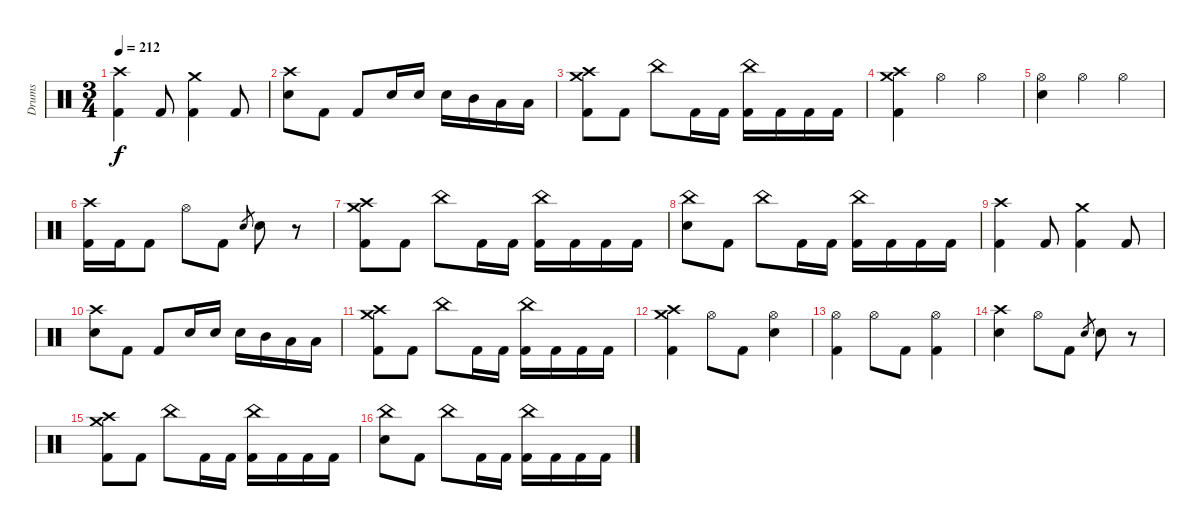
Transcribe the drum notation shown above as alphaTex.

\track ("Drums" "Drums") {instrument percussion}
\staff {score}
\articulation defaults
\ts (3 4)
\tempo 212
\clef neutral
\ks c
("Crash high (hit)" "Kick (hit) 2").4{dy f} "Kick (hit) 2".8 ("Crash medium (hit)" "Kick (hit) 2").4 "Kick (hit) 2".8 |
("Crash high (hit)" "Electric Snare (hit)").8 "Kick (hit) 2".8 "Kick (hit) 2".8 "Electric Snare (hit)".16 "Electric Snare (hit)".16 "Electric Snare (hit)".16 "Mid Tom (hit)".16 "Low Tom (hit)".16 "Low Tom (hit)".16 |
("Crash medium (hit)" "Crash high (hit)" "Kick (hit) 2").8 "Kick (hit) 2".8 "China (hit)".8 "Kick (hit) 2".16 "Kick (hit) 2".16 ("China (hit)" "Kick (hit) 2").16 "Kick (hit) 2".16 "Kick (hit) 2".16 "Kick (hit) 2".16 |
("Crash medium (hit)" "Crash high (hit)" "Kick (hit) 2").4 "Hi-Hat (open)".4 "Hi-Hat (open)".4 |
("Hi-Hat (open)" "Electric Snare (hit)").4 "Hi-Hat (open)".4 "Hi-Hat (open)".4 |
("Crash high (hit)" "Kick (hit) 2").16 "Kick (hit) 2".16 "Kick (hit) 2".8 "Hi-Hat (open)".8 "Kick (hit) 2".8 "Electric Snare (hit)".8{gr} "Electric Snare (hit)".8 r.8 |
("Crash medium (hit)" "Crash high (hit)" "Kick (hit) 2").8 "Kick (hit) 2".8 "China (hit)".8 "Kick (hit) 2".16 "Kick (hit) 2".16 ("China (hit)" "Kick (hit) 2").16 "Kick (hit) 2".16 "Kick (hit) 2".16 "Kick (hit) 2".16 |
("China (hit)" "Electric Snare (hit)").8 "Kick (hit) 2".8 "China (hit)".8 "Kick (hit) 2".16 "Kick (hit) 2".16 ("China (hit)" "Kick (hit) 2").16 "Kick (hit) 2".16 "Kick (hit) 2".16 "Kick (hit) 2".16 |
("Crash high (hit)" "Kick (hit) 2").4 "Kick (hit) 2".8 ("Crash medium (hit)" "Kick (hit) 2").4 "Kick (hit) 2".8 |
("Crash high (hit)" "Electric Snare (hit)").8 "Kick (hit) 2".8 "Kick (hit) 2".8 "Electric Snare (hit)".16 "Electric Snare (hit)".16 "Electric Snare (hit)".16 "Mid Tom (hit)".16 "Low Tom (hit)".16 "Low Tom (hit)".16 |
("Crash medium (hit)" "Crash high (hit)" "Kick (hit) 2").8 "Kick (hit) 2".8 "China (hit)".8 "Kick (hit) 2".16 "Kick (hit) 2".16 ("China (hit)" "Kick (hit) 2").16 "Kick (hit) 2".16 "Kick (hit) 2".16 "Kick (hit) 2".16 |
("Crash medium (hit)" "Crash high (hit)" "Kick (hit) 2").4 "Hi-Hat (open)".8 "Kick (hit) 2".8 ("Hi-Hat (open)" "Electric Snare (hit)").4 |
("Hi-Hat (open)" "Kick (hit) 2").4 "Hi-Hat (open)".8 "Kick (hit) 2".8 ("Hi-Hat (open)" "Kick (hit) 2").4 |
("Crash high (hit)" "Electric Snare (hit)").4 "Hi-Hat (open)".8 "Kick (hit) 2".8 "Electric Snare (hit)".8{gr} "Electric Snare (hit)".8 r.8 |
("Crash medium (hit)" "Crash high (hit)" "Kick (hit) 2").8 "Kick (hit) 2".8 "China (hit)".8 "Kick (hit) 2".16 "Kick (hit) 2".16 ("China (hit)" "Kick (hit) 2").16 "Kick (hit) 2".16 "Kick (hit) 2".16 "Kick (hit) 2".16 |
("China (hit)" "Electric Snare (hit)").8 "Kick (hit) 2".8 "China (hit)".8 "Kick (hit) 2".16 "Kick (hit) 2".16 ("China (hit)" "Kick (hit) 2").16 "Kick (hit) 2".16 "Kick (hit) 2".16 "Kick (hit) 2".16
